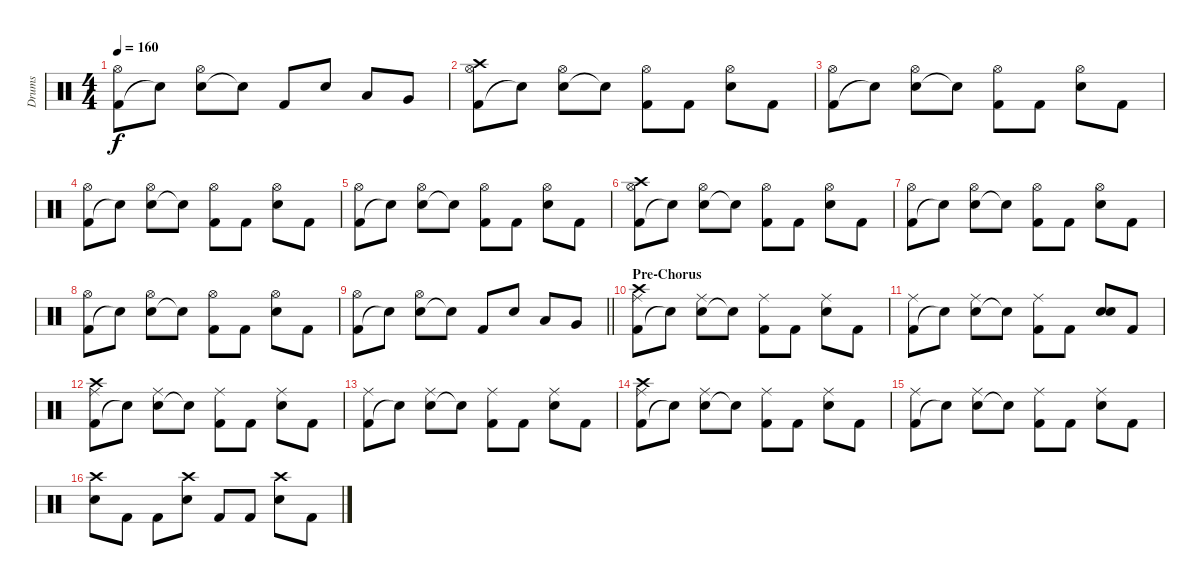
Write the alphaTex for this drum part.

\track ("Drums" "Drums") {instrument percussion}
\staff {score}
\articulation defaults
\ts (4 4)
\tempo 160
\clef neutral
\ks c
("Kick (hit) 2" "Hi-Hat (open)").8{dy f} "Snare (hit)"{t}.8 ("Snare (hit) 2" "Hi-Hat (open)").8 "Snare (hit)"{t}.8 "Kick (hit) 2".8 "Snare (hit) 2".8 "Low Tom (hit)".8 "Very Low Tom (hit)".8 |
("Kick (hit) 2" "Hi-Hat (open)" "Crash high (hit)").8 "Snare (hit)"{t}.8 ("Snare (hit) 2" "Hi-Hat (open)").8 "Snare (hit)"{t}.8 ("Kick (hit) 2" "Hi-Hat (open)").8 "Kick (hit) 2".8 ("Snare (hit) 2" "Hi-Hat (open)").8 "Kick (hit) 2".8 |
("Kick (hit) 2" "Hi-Hat (open)").8 "Snare (hit)"{t}.8 ("Snare (hit) 2" "Hi-Hat (open)").8 "Snare (hit)"{t}.8 ("Kick (hit) 2" "Hi-Hat (open)").8 "Kick (hit) 2".8 ("Snare (hit) 2" "Hi-Hat (open)").8 "Kick (hit) 2".8 |
("Kick (hit) 2" "Hi-Hat (open)").8 "Snare (hit)"{t}.8 ("Snare (hit) 2" "Hi-Hat (open)").8 "Snare (hit)"{t}.8 ("Kick (hit) 2" "Hi-Hat (open)").8 "Kick (hit) 2".8 ("Snare (hit) 2" "Hi-Hat (open)").8 "Kick (hit) 2".8 |
("Kick (hit) 2" "Hi-Hat (open)").8 "Snare (hit)"{t}.8 ("Snare (hit) 2" "Hi-Hat (open)").8 "Snare (hit)"{t}.8 ("Kick (hit) 2" "Hi-Hat (open)").8 "Kick (hit) 2".8 ("Snare (hit) 2" "Hi-Hat (open)").8 "Kick (hit) 2".8 |
("Kick (hit) 2" "Hi-Hat (open)" "Crash high (hit)").8 "Snare (hit)"{t}.8 ("Snare (hit) 2" "Hi-Hat (open)").8 "Snare (hit)"{t}.8 ("Kick (hit) 2" "Hi-Hat (open)").8 "Kick (hit) 2".8 ("Snare (hit) 2" "Hi-Hat (open)").8 "Kick (hit) 2".8 |
("Kick (hit) 2" "Hi-Hat (open)").8 "Snare (hit)"{t}.8 ("Snare (hit) 2" "Hi-Hat (open)").8 "Snare (hit)"{t}.8 ("Kick (hit) 2" "Hi-Hat (open)").8 "Kick (hit) 2".8 ("Snare (hit) 2" "Hi-Hat (open)").8 "Kick (hit) 2".8 |
("Kick (hit) 2" "Hi-Hat (open)").8 "Snare (hit)"{t}.8 ("Snare (hit) 2" "Hi-Hat (open)").8 "Snare (hit)"{t}.8 ("Kick (hit) 2" "Hi-Hat (open)").8 "Kick (hit) 2".8 ("Snare (hit) 2" "Hi-Hat (open)").8 "Kick (hit) 2".8 |
\barLineRight lightlight
("Kick (hit) 2" "Hi-Hat (open)").8 "Snare (hit)"{t}.8 ("Snare (hit) 2" "Hi-Hat (open)").8 "Snare (hit)"{t}.8 "Kick (hit) 2".8 "Snare (hit) 2".8 "Low Tom (hit)".8 "Very Low Tom (hit)".8 |
\section ("" "Pre-Chorus")
("Kick (hit) 2" "Ride (middle)" "Crash high (hit)").8 "Snare (hit)"{t}.8 ("Snare (hit) 2" "Ride (middle)").8 "Snare (hit)"{t}.8 ("Kick (hit) 2" "Ride (middle)").8 "Kick (hit) 2".8 ("Snare (hit) 2" "Ride (middle)").8 "Kick (hit) 2".8 |
("Kick (hit) 2" "Ride (middle)").8 "Snare (hit)"{t}.8 ("Snare (hit) 2" "Ride (middle)").8 "Snare (hit)"{t}.8 ("Kick (hit) 2" "Ride (middle)").8 "Kick (hit) 2".8 ("Snare (hit) 2" "Snare (hit)").8 "Kick (hit) 2".8 |
("Kick (hit) 2" "Ride (middle)" "Crash high (hit)").8 "Snare (hit)"{t}.8 ("Snare (hit) 2" "Ride (middle)").8 "Snare (hit)"{t}.8 ("Kick (hit) 2" "Ride (middle)").8 "Kick (hit) 2".8 ("Snare (hit) 2" "Ride (middle)").8 "Kick (hit) 2".8 |
("Kick (hit) 2" "Ride (middle)").8 "Snare (hit)"{t}.8 ("Snare (hit) 2" "Ride (middle)").8 "Snare (hit)"{t}.8 ("Kick (hit) 2" "Ride (middle)").8 "Kick (hit) 2".8 ("Snare (hit) 2" "Ride (middle)").8 "Kick (hit) 2".8 |
("Kick (hit) 2" "Ride (middle)" "Crash high (hit)").8 "Snare (hit)"{t}.8 ("Snare (hit) 2" "Ride (middle)").8 "Snare (hit)"{t}.8 ("Kick (hit) 2" "Ride (middle)").8 "Kick (hit) 2".8 ("Snare (hit) 2" "Ride (middle)").8 "Kick (hit) 2".8 |
("Kick (hit) 2" "Ride (middle)").8 "Snare (hit)"{t}.8 ("Snare (hit) 2" "Ride (middle)").8 "Snare (hit)"{t}.8 ("Kick (hit) 2" "Ride (middle)").8 "Kick (hit) 2".8 ("Snare (hit) 2" "Ride (middle)").8 "Kick (hit) 2".8 |
("Snare (hit) 2" "Crash high (hit)").8 "Kick (hit) 2".8 "Kick (hit) 2".8 ("Snare (hit) 2" "Crash high (hit)").8 "Kick (hit) 2".8 "Kick (hit) 2".8 ("Snare (hit) 2" "Crash high (hit)").8 "Kick (hit) 2".8
